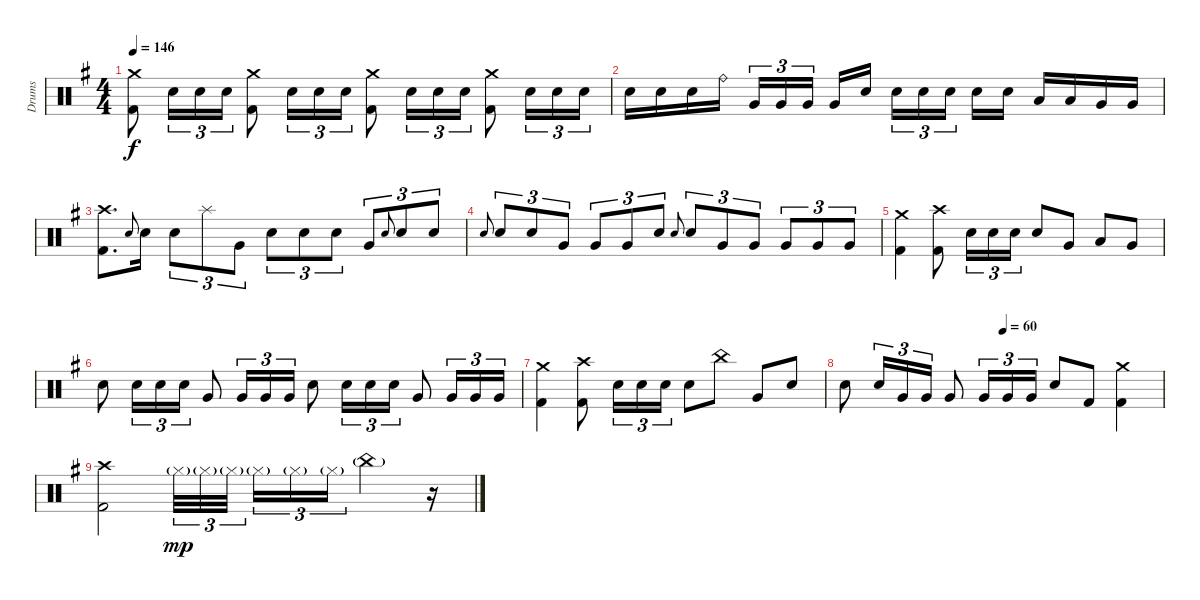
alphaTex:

\track ("Drums" "Drums") {instrument percussion}
\staff {score}
\articulation defaults
\ts (4 4)
\tempo 146
\clef neutral
\ks eminor
("Crash medium (hit)" "Kick (hit) 2").8{dy f} "Electric Snare (hit)".16{tu (3 2)} "Electric Snare (hit)".16{tu (3 2)} "Electric Snare (hit)".16{tu (3 2)} ("Crash medium (hit)" "Kick (hit) 2").8 "Electric Snare (hit)".16{tu (3 2)} "Electric Snare (hit)".16{tu (3 2)} "Electric Snare (hit)".16{tu (3 2)} ("Crash medium (hit)" "Kick (hit) 2").8 "Electric Snare (hit)".16{tu (3 2)} "Electric Snare (hit)".16{tu (3 2)} "Electric Snare (hit)".16{tu (3 2)} ("Crash medium (hit)" "Kick (hit) 2").8 "Electric Snare (hit)".16{tu (3 2)} "Electric Snare (hit)".16{tu (3 2)} "Electric Snare (hit)".16{tu (3 2)} |
"Electric Snare (hit)".16 "Electric Snare (hit)".16 "Electric Snare (hit)".16 "Ride (bell)".16 "Very Low Tom (hit)".16{tu (3 2)} "Very Low Tom (hit)".16{tu (3 2)} "Very Low Tom (hit)".16{tu (3 2) beam splitsecondary} "Very Low Tom (hit)".16 "Electric Snare (hit)".16 "Electric Snare (hit)".16{tu (3 2)} "Electric Snare (hit)".16{tu (3 2)} "Electric Snare (hit)".16{tu (3 2) beam splitsecondary} "Electric Snare (hit)".16 "Electric Snare (hit)".16 "Low Tom (hit)".16 "Low Tom (hit)".16 "Very Low Tom (hit)".16 "Very Low Tom (hit)".16 |
("Crash high (hit)" "Kick (hit) 2").8{d} "Electric Snare (hit)".8{gr onbeat} "Electric Snare (hit)".16 "Electric Snare (hit)".8{tu (3 2)} "Splash (hit)".8{tu (3 2)} "Very Low Tom (hit)".8{tu (3 2)} "Electric Snare (hit)".8{tu (3 2)} "Electric Snare (hit)".8{tu (3 2)} "Electric Snare (hit)".8{tu (3 2)} "Very Low Tom (hit)".8{tu (3 2)} "Electric Snare (hit)".8{gr onbeat} "Electric Snare (hit)".8{tu (3 2)} "Electric Snare (hit)".8{tu (3 2)} |
"Electric Snare (hit)".8{gr onbeat} "Electric Snare (hit)".8{tu (3 2)} "Electric Snare (hit)".8{tu (3 2)} "Very Low Tom (hit)".8{tu (3 2)} "Very Low Tom (hit)".8{tu (3 2)} "Very Low Tom (hit)".8{tu (3 2)} "Electric Snare (hit)".8{tu (3 2)} "Electric Snare (hit)".8{gr onbeat} "Electric Snare (hit)".8{tu (3 2)} "Very Low Tom (hit)".8{tu (3 2)} "Very Low Tom (hit)".8{tu (3 2)} "Very Low Tom (hit)".8{tu (3 2)} "Very Low Tom (hit)".8{tu (3 2)} "Very Low Tom (hit)".8{tu (3 2)} |
("Crash medium (hit)" "Kick (hit) 2").4 ("Crash high (hit)" "Kick (hit) 2").8 "Electric Snare (hit)".16{tu (3 2)} "Electric Snare (hit)".16{tu (3 2)} "Electric Snare (hit)".16{tu (3 2)} "Electric Snare (hit)".8 "Very Low Tom (hit)".8 "Low Floor Tom (hit)".8 "Very Low Tom (hit)".8 |
"Electric Snare (hit)".8 "Electric Snare (hit)".16{tu (3 2)} "Electric Snare (hit)".16{tu (3 2)} "Electric Snare (hit)".16{tu (3 2)} "Very Low Tom (hit)".8 "Very Low Tom (hit)".16{tu (3 2)} "Very Low Tom (hit)".16{tu (3 2)} "Very Low Tom (hit)".16{tu (3 2)} "Electric Snare (hit)".8 "Electric Snare (hit)".16{tu (3 2)} "Electric Snare (hit)".16{tu (3 2)} "Electric Snare (hit)".16{tu (3 2)} "Very Low Tom (hit)".8 "Very Low Tom (hit)".16{tu (3 2)} "Very Low Tom (hit)".16{tu (3 2)} "Very Low Tom (hit)".16{tu (3 2)} |
("Crash medium (hit)" "Kick (hit) 2").4 ("Crash high (hit)" "Kick (hit) 2").8 "Electric Snare (hit)".16{tu (3 2)} "Electric Snare (hit)".16{tu (3 2)} "Electric Snare (hit)".16{tu (3 2)} "Electric Snare (hit)".8 "China (hit)".8 "Very Low Tom (hit)".8 "Electric Snare (hit)".8 |
\tempo (60 0.5)
"Electric Snare (hit)".8 "Electric Snare (hit)".16{tu (3 2)} "Very Low Tom (hit)".16{tu (3 2)} "Very Low Tom (hit)".16{tu (3 2)} "Very Low Tom (hit)".8 "Very Low Tom (hit)".16{tu (3 2)} "Very Low Tom (hit)".16{tu (3 2)} "Very Low Tom (hit)".16{tu (3 2)} "Electric Snare (hit)".8 "Kick (hit) 2".8 ("Crash medium (hit)" "Kick (hit) 2").4 |
("Crash high (hit)" "Kick (hit) 2").2 "Hi-Hat (closed)"{g}.32{tu (3 2) dy mp} "Hi-Hat (closed)"{g}.32{tu (3 2)} "Hi-Hat (closed)"{g}.32{tu (3 2) beam splitsecondary} "Hi-Hat (closed)"{g}.16{tu (3 2)} "Hi-Hat (closed)"{g}.16{tu (3 2)} "Hi-Hat (closed)"{g}.16{tu (3 2)} "China (hit)"{g}.4 r.16
